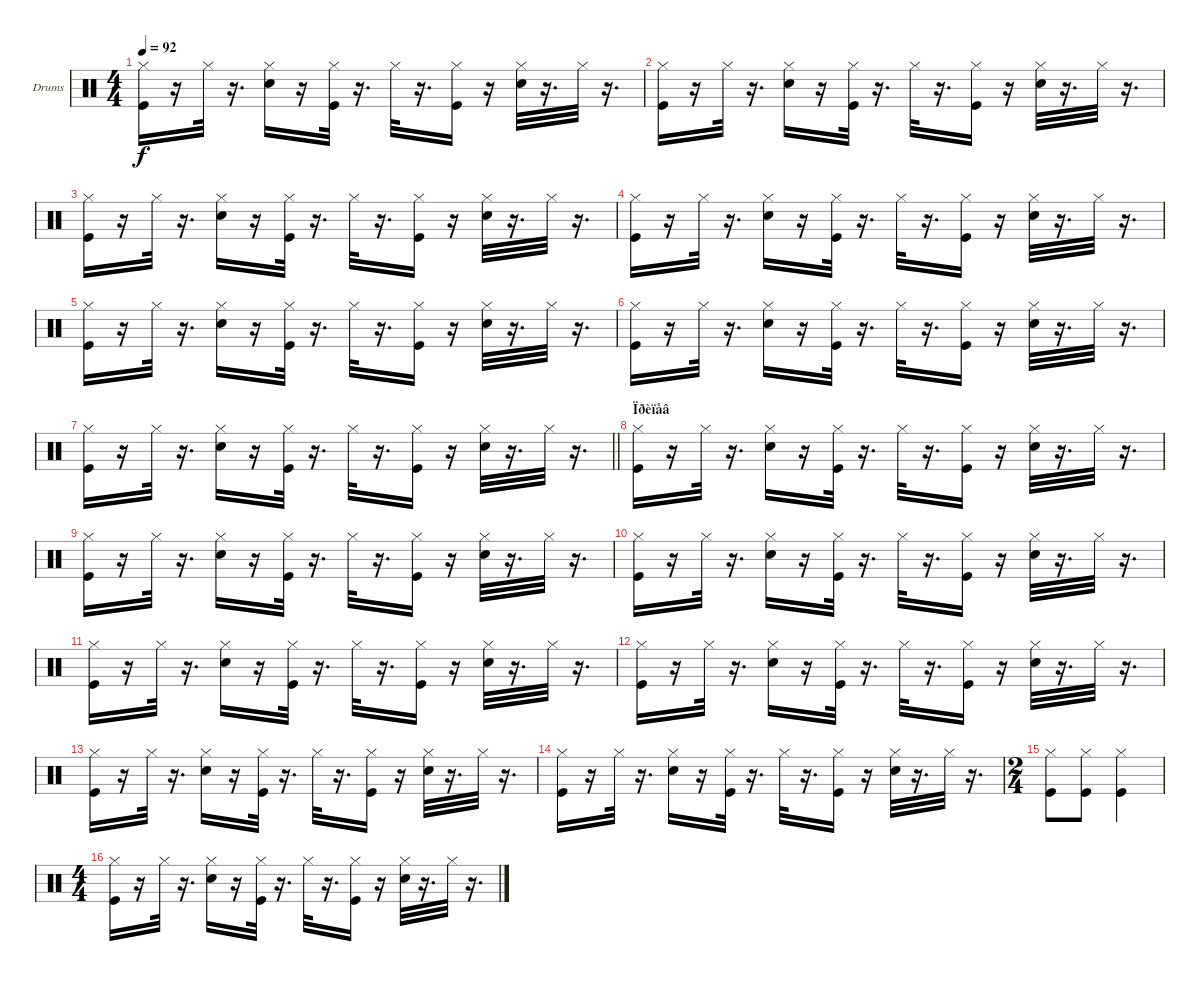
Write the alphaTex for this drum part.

\bracketExtendMode groupsimilarinstruments
\firstSystemTrackNameOrientation horizontal
\otherSystemsTrackNameOrientation horizontal
\track ("Drumkit" "Drums") {instrument percussion}
\staff {score}
\articulation defaults
\ts (4 4)
\tempo 92
\clef neutral
\ks c
("Kick (hit)" "Hi-Hat (closed)").16{dy f} r.16 "Hi-Hat (closed)".32 r.16{d} ("Snare (hit) 2" "Hi-Hat (closed)").16 r.16 ("Kick (hit)" "Hi-Hat (closed)").32 r.16{d} "Hi-Hat (closed)".32 r.16{d} ("Kick (hit)" "Hi-Hat (closed)").16 r.16 ("Snare (hit) 2" "Hi-Hat (closed)").32 r.16{d} "Hi-Hat (closed)".32 r.16{d} |
("Kick (hit)" "Hi-Hat (closed)").16 r.16 "Hi-Hat (closed)".32 r.16{d} ("Snare (hit) 2" "Hi-Hat (closed)").16 r.16 ("Kick (hit)" "Hi-Hat (closed)").32 r.16{d} "Hi-Hat (closed)".32 r.16{d} ("Kick (hit)" "Hi-Hat (closed)").16 r.16 ("Snare (hit) 2" "Hi-Hat (closed)").32 r.16{d} "Hi-Hat (closed)".32 r.16{d} |
("Kick (hit)" "Hi-Hat (closed)").16 r.16 "Hi-Hat (closed)".32 r.16{d} ("Snare (hit) 2" "Hi-Hat (closed)").16 r.16 ("Kick (hit)" "Hi-Hat (closed)").32 r.16{d} "Hi-Hat (closed)".32 r.16{d} ("Kick (hit)" "Hi-Hat (closed)").16 r.16 ("Snare (hit) 2" "Hi-Hat (closed)").32 r.16{d} "Hi-Hat (closed)".32 r.16{d} |
("Kick (hit)" "Hi-Hat (closed)").16 r.16 "Hi-Hat (closed)".32 r.16{d} ("Snare (hit) 2" "Hi-Hat (closed)").16 r.16 ("Kick (hit)" "Hi-Hat (closed)").32 r.16{d} "Hi-Hat (closed)".32 r.16{d} ("Kick (hit)" "Hi-Hat (closed)").16 r.16 ("Snare (hit) 2" "Hi-Hat (closed)").32 r.16{d} "Hi-Hat (closed)".32 r.16{d} |
("Kick (hit)" "Hi-Hat (closed)").16 r.16 "Hi-Hat (closed)".32 r.16{d} ("Snare (hit) 2" "Hi-Hat (closed)").16 r.16 ("Kick (hit)" "Hi-Hat (closed)").32 r.16{d} "Hi-Hat (closed)".32 r.16{d} ("Kick (hit)" "Hi-Hat (closed)").16 r.16 ("Snare (hit) 2" "Hi-Hat (closed)").32 r.16{d} "Hi-Hat (closed)".32 r.16{d} |
("Kick (hit)" "Hi-Hat (closed)").16 r.16 "Hi-Hat (closed)".32 r.16{d} ("Snare (hit) 2" "Hi-Hat (closed)").16 r.16 ("Kick (hit)" "Hi-Hat (closed)").32 r.16{d} "Hi-Hat (closed)".32 r.16{d} ("Kick (hit)" "Hi-Hat (closed)").16 r.16 ("Snare (hit) 2" "Hi-Hat (closed)").32 r.16{d} "Hi-Hat (closed)".32 r.16{d} |
\barLineRight lightlight
("Kick (hit)" "Hi-Hat (closed)").16 r.16 "Hi-Hat (closed)".32 r.16{d} ("Snare (hit) 2" "Hi-Hat (closed)").16 r.16 ("Kick (hit)" "Hi-Hat (closed)").32 r.16{d} "Hi-Hat (closed)".32 r.16{d} ("Kick (hit)" "Hi-Hat (closed)").16 r.16 ("Snare (hit) 2" "Hi-Hat (closed)").32 r.16{d} "Hi-Hat (closed)".32 r.16{d} |
\section ("" "Ïðèïåâ")
("Kick (hit)" "Hi-Hat (closed)").16 r.16 "Hi-Hat (closed)".32 r.16{d} ("Snare (hit) 2" "Hi-Hat (closed)").16 r.16 ("Kick (hit)" "Hi-Hat (closed)").32 r.16{d} "Hi-Hat (closed)".32 r.16{d} ("Kick (hit)" "Hi-Hat (closed)").16 r.16 ("Snare (hit) 2" "Hi-Hat (closed)").32 r.16{d} "Hi-Hat (closed)".32 r.16{d} |
("Kick (hit)" "Hi-Hat (closed)").16 r.16 "Hi-Hat (closed)".32 r.16{d} ("Snare (hit) 2" "Hi-Hat (closed)").16 r.16 ("Kick (hit)" "Hi-Hat (closed)").32 r.16{d} "Hi-Hat (closed)".32 r.16{d} ("Kick (hit)" "Hi-Hat (closed)").16 r.16 ("Snare (hit) 2" "Hi-Hat (closed)").32 r.16{d} "Hi-Hat (closed)".32 r.16{d} |
("Kick (hit)" "Hi-Hat (closed)").16 r.16 "Hi-Hat (closed)".32 r.16{d} ("Snare (hit) 2" "Hi-Hat (closed)").16 r.16 ("Kick (hit)" "Hi-Hat (closed)").32 r.16{d} "Hi-Hat (closed)".32 r.16{d} ("Kick (hit)" "Hi-Hat (closed)").16 r.16 ("Snare (hit) 2" "Hi-Hat (closed)").32 r.16{d} "Hi-Hat (closed)".32 r.16{d} |
("Kick (hit)" "Hi-Hat (closed)").16 r.16 "Hi-Hat (closed)".32 r.16{d} ("Snare (hit) 2" "Hi-Hat (closed)").16 r.16 ("Kick (hit)" "Hi-Hat (closed)").32 r.16{d} "Hi-Hat (closed)".32 r.16{d} ("Kick (hit)" "Hi-Hat (closed)").16 r.16 ("Snare (hit) 2" "Hi-Hat (closed)").32 r.16{d} "Hi-Hat (closed)".32 r.16{d} |
("Kick (hit)" "Hi-Hat (closed)").16 r.16 "Hi-Hat (closed)".32 r.16{d} ("Snare (hit) 2" "Hi-Hat (closed)").16 r.16 ("Kick (hit)" "Hi-Hat (closed)").32 r.16{d} "Hi-Hat (closed)".32 r.16{d} ("Kick (hit)" "Hi-Hat (closed)").16 r.16 ("Snare (hit) 2" "Hi-Hat (closed)").32 r.16{d} "Hi-Hat (closed)".32 r.16{d} |
("Kick (hit)" "Hi-Hat (closed)").16 r.16 "Hi-Hat (closed)".32 r.16{d} ("Snare (hit) 2" "Hi-Hat (closed)").16 r.16 ("Kick (hit)" "Hi-Hat (closed)").32 r.16{d} "Hi-Hat (closed)".32 r.16{d} ("Kick (hit)" "Hi-Hat (closed)").16 r.16 ("Snare (hit) 2" "Hi-Hat (closed)").32 r.16{d} "Hi-Hat (closed)".32 r.16{d} |
("Kick (hit)" "Hi-Hat (closed)").16 r.16 "Hi-Hat (closed)".32 r.16{d} ("Snare (hit) 2" "Hi-Hat (closed)").16 r.16 ("Kick (hit)" "Hi-Hat (closed)").32 r.16{d} "Hi-Hat (closed)".32 r.16{d} ("Kick (hit)" "Hi-Hat (closed)").16 r.16 ("Snare (hit) 2" "Hi-Hat (closed)").32 r.16{d} "Hi-Hat (closed)".32 r.16{d} |
\ts (2 4)
\beaming (8 2 2 2 2)
("Kick (hit)" "Hi-Hat (closed)").8 ("Kick (hit)" "Hi-Hat (closed)").8 ("Kick (hit)" "Hi-Hat (closed)").4 |
\ts (4 4)
\beaming (8 2 2 2 2)
("Kick (hit)" "Hi-Hat (closed)").16 r.16 "Hi-Hat (closed)".32 r.16{d} ("Snare (hit) 2" "Hi-Hat (closed)").16 r.16 ("Kick (hit)" "Hi-Hat (closed)").32 r.16{d} "Hi-Hat (closed)".32 r.16{d} ("Kick (hit)" "Hi-Hat (closed)").16 r.16 ("Snare (hit) 2" "Hi-Hat (closed)").32 r.16{d} "Hi-Hat (closed)".32 r.16{d}
